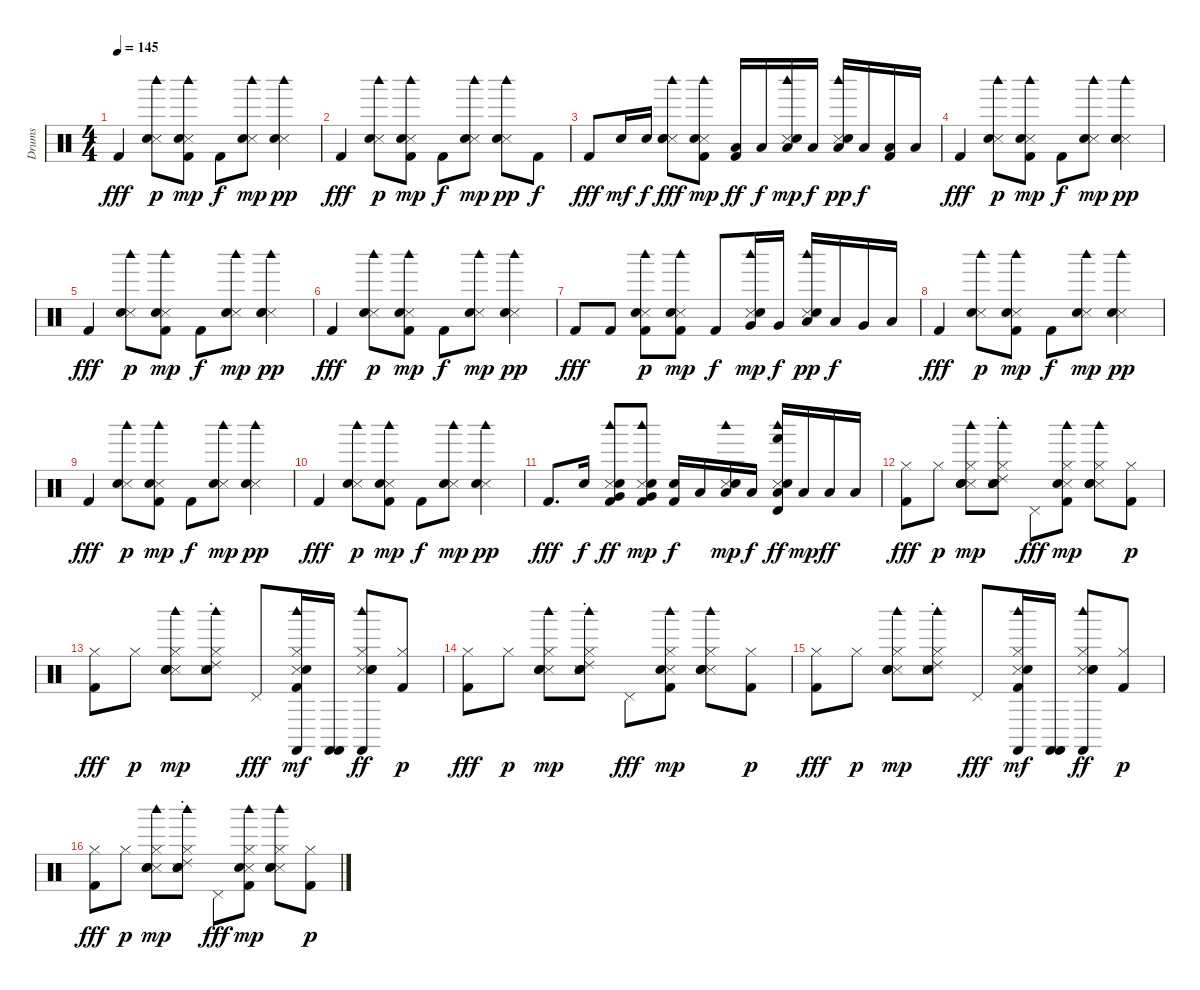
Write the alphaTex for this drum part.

\track ("Drums" "Drums") {instrument percussion}
\staff {score}
\articulation defaults
\ts (4 4)
\tempo 145
\clef neutral
\ks c "Kick (hit) 2".4{dy fff}
("Snare (side stick) 3" "Hand Clap (hit)" "Woodblock high (hit)").8{dy p} ("Kick (hit) 2" "Snare (side stick) 3" "Hand Clap (hit)" "Woodblock high (hit)").8{dy mp} "Kick (hit) 2".8{dy f} ("Snare (side stick) 3" "Hand Clap (hit)" "Woodblock high (hit)").8{dy mp} ("Snare (side stick) 3" "Hand Clap (hit)" "Woodblock high (hit)").4{dy pp} |
"Kick (hit) 2".4{dy fff} ("Snare (side stick) 3" "Hand Clap (hit)" "Woodblock high (hit)").8{dy p} ("Kick (hit) 2" "Snare (side stick) 3" "Hand Clap (hit)" "Woodblock high (hit)").8{dy mp} "Kick (hit) 2".8{dy f} ("Snare (side stick) 3" "Hand Clap (hit)" "Woodblock high (hit)").8{dy mp} ("Snare (side stick) 3" "Hand Clap (hit)" "Woodblock high (hit)").8{dy pp} "Kick (hit) 2".8{dy f} |
"Kick (hit) 2".8{dy fff} "Electric Snare (hit)".16{dy mf} "Electric Snare (hit)".16{dy f} ("Snare (side stick) 3" "Hand Clap (hit)" "Electric Snare (hit)" "Woodblock high (hit)").8{dy fff} ("Kick (hit) 2" "Snare (side stick) 3" "Hand Clap (hit)" "Woodblock high (hit)").8{dy mp} ("Kick (hit) 2" "Low Tom (hit)").16{dy ff} "Low Tom (hit)".16{dy f} ("Snare (side stick) 3" "Hand Clap (hit)" "Low Tom (hit)" "Woodblock high (hit)").16{dy mp} "Low Tom (hit)".16{dy f} ("Snare (side stick) 3" "Hand Clap (hit)" "Low Tom (hit)" "Woodblock high (hit)").16{dy pp} "Low Tom (hit)".16{dy f} ("Kick (hit) 2" "Low Tom (hit)").16 "Low Tom (hit)".16 |
"Kick (hit) 2".4{dy fff} ("Snare (side stick) 3" "Hand Clap (hit)" "Woodblock high (hit)").8{dy p} ("Kick (hit) 2" "Snare (side stick) 3" "Hand Clap (hit)" "Woodblock high (hit)").8{dy mp} "Kick (hit) 2".8{dy f} ("Snare (side stick) 3" "Hand Clap (hit)" "Woodblock high (hit)").8{dy mp} ("Snare (side stick) 3" "Hand Clap (hit)" "Woodblock high (hit)").4{dy pp} |
"Kick (hit) 2".4{dy fff} ("Snare (side stick) 3" "Hand Clap (hit)" "Woodblock high (hit)").8{dy p} ("Kick (hit) 2" "Snare (side stick) 3" "Hand Clap (hit)" "Woodblock high (hit)").8{dy mp} "Kick (hit) 2".8{dy f} ("Snare (side stick) 3" "Hand Clap (hit)" "Woodblock high (hit)").8{dy mp} ("Snare (side stick) 3" "Hand Clap (hit)" "Electric Snare (hit)" "Woodblock high (hit)").4{dy pp} |
"Kick (hit) 2".4{dy fff} ("Snare (side stick) 3" "Hand Clap (hit)" "Woodblock high (hit)").8{dy p} ("Kick (hit) 2" "Snare (side stick) 3" "Hand Clap (hit)" "Woodblock high (hit)").8{dy mp} "Kick (hit) 2".8{dy f} ("Snare (side stick) 3" "Hand Clap (hit)" "Woodblock high (hit)").8{dy mp} ("Snare (side stick) 3" "Hand Clap (hit)" "Woodblock high (hit)").4{dy pp} |
"Kick (hit) 2".8{dy fff} "Kick (hit) 2".8 ("Kick (hit) 2" "Snare (side stick) 3" "Hand Clap (hit)" "Woodblock high (hit)").8{dy p} ("Kick (hit) 2" "Snare (side stick) 3" "Hand Clap (hit)" "Woodblock high (hit)").8{dy mp} "Kick (hit) 2".8{dy f} ("Snare (side stick) 3" "Hand Clap (hit)" "Very Low Tom (hit)" "Woodblock high (hit)").16{dy mp} "Very Low Tom (hit)".16{dy f} ("Snare (side stick) 3" "Hand Clap (hit)" "Low Tom (hit)" "Woodblock high (hit)").16{dy pp} "Low Tom (hit)".16{dy f} "Very Low Tom (hit)".16 "Low Floor Tom (hit)".16 |
"Kick (hit) 2".4{dy fff} ("Snare (side stick) 3" "Hand Clap (hit)" "Woodblock high (hit)").8{dy p} ("Kick (hit) 2" "Snare (side stick) 3" "Hand Clap (hit)" "Woodblock high (hit)").8{dy mp} "Kick (hit) 2".8{dy f} ("Snare (side stick) 3" "Hand Clap (hit)" "Woodblock high (hit)").8{dy mp} ("Snare (side stick) 3" "Hand Clap (hit)" "Woodblock high (hit)").4{dy pp} |
"Kick (hit) 2".4{dy fff} ("Snare (side stick) 3" "Hand Clap (hit)" "Woodblock high (hit)").8{dy p} ("Kick (hit) 2" "Snare (side stick) 3" "Hand Clap (hit)" "Woodblock high (hit)").8{dy mp} "Kick (hit) 2".8{dy f} ("Snare (side stick) 3" "Hand Clap (hit)" "Woodblock high (hit)").8{dy mp} ("Snare (side stick) 3" "Hand Clap (hit)" "Woodblock high (hit)").4{dy pp} |
"Kick (hit) 2".4{dy fff} ("Snare (side stick) 3" "Hand Clap (hit)" "Woodblock high (hit)").8{dy p} ("Kick (hit) 2" "Snare (side stick) 3" "Hand Clap (hit)" "Woodblock high (hit)").8{dy mp} "Kick (hit) 2".8{dy f} ("Snare (side stick) 3" "Hand Clap (hit)" "Woodblock high (hit)").8{dy mp} ("Snare (side stick) 3" "Hand Clap (hit)" "Woodblock high (hit)").4{dy pp} |
"Kick (hit) 2".8{d dy fff} "Electric Snare (hit)".16{dy f} ("Kick (hit) 2" "Snare (side stick) 3" "Hand Clap (hit)" "Very Low Tom (hit)" "Woodblock high (hit)").8{dy ff} ("Kick (hit) 2" "Snare (side stick) 3" "Hand Clap (hit)" "Very Low Tom (hit)" "Woodblock high (hit)").8{dy mp} ("Kick (hit) 2" "Electric Snare (hit)").16{dy f} "Low Floor Tom (hit)".16 ("Snare (side stick) 3" "Hand Clap (hit)" "Low Floor Tom (hit)" "Woodblock high (hit)").16{dy mp} "Low Floor Tom (hit)".16{dy f} ("Snare (side stick) 3" "Hand Clap (hit)" "Low Floor Tom (hit)" "Hand (hit)" "Timbale high (hit)" "Woodblock high (hit)").16{dy ff} "Low Floor Tom (hit)".16{dy mp} "Low Floor Tom (hit)".16{dy ff} "Low Floor Tom (hit)".16 |
("Kick (hit) 2" "Hi-Hat (closed)").8{dy fff} "Hi-Hat (closed)".8{dy p} ("Snare (side stick) 3" "Hand Clap (hit)" "Electric Snare (hit)" "Hi-Hat (closed)" "Woodblock high (hit)").8{dy mp} ("Ride (choke) 2" "Snare (side stick) 3" "Hand Clap (hit)" "Electric Snare (hit)" "Hi-Hat (closed)" "Woodblock high (hit)").8 "Pedal Hi-Hat (hit)".8{dy fff} ("Kick (hit) 2" "Snare (side stick) 3" "Hand Clap (hit)" "Hi-Hat (closed)" "Woodblock high (hit)").8{dy mp} ("Snare (side stick) 3" "Hand Clap (hit)" "Electric Snare (hit)" "Hi-Hat (closed)" "Woodblock high (hit)").8 ("Kick (hit) 2" "Hi-Hat (closed)").8{dy p} |
("Kick (hit) 2" "Hi-Hat (closed)").8{dy fff} "Hi-Hat (closed)".8{dy p} ("Snare (side stick) 3" "Hand Clap (hit)" "Electric Snare (hit)" "Hi-Hat (closed)" "Woodblock high (hit)").8{dy mp} ("Ride (choke) 2" "Snare (side stick) 3" "Hand Clap (hit)" "Electric Snare (hit)" "Hi-Hat (closed)" "Woodblock high (hit)").8 "Pedal Hi-Hat (hit)".8{dy fff} ("Kick (hit) 2" "Snare (side stick) 3" "Hand Clap (hit)" "Hi-Hat (closed)" "Woodblock high (hit)" "Castanets (hit)").16{dy mf} ("Castanets (hit)" "Castanets (hit)").16 ("Snare (side stick) 3" "Hand Clap (hit)" "Electric Snare (hit)" "Hi-Hat (closed)" "Woodblock high (hit)" "Castanets (hit)").8{dy ff} ("Kick (hit) 2" "Hi-Hat (closed)").8{dy p} |
("Kick (hit) 2" "Hi-Hat (closed)").8{dy fff} "Hi-Hat (closed)".8{dy p} ("Snare (side stick) 3" "Hand Clap (hit)" "Electric Snare (hit)" "Hi-Hat (closed)" "Woodblock high (hit)").8{dy mp} ("Ride (choke) 2" "Snare (side stick) 3" "Hand Clap (hit)" "Electric Snare (hit)" "Hi-Hat (closed)" "Woodblock high (hit)").8 "Pedal Hi-Hat (hit)".8{dy fff} ("Kick (hit) 2" "Snare (side stick) 3" "Hand Clap (hit)" "Hi-Hat (closed)" "Woodblock high (hit)").8{dy mp} ("Snare (side stick) 3" "Hand Clap (hit)" "Electric Snare (hit)" "Hi-Hat (closed)" "Woodblock high (hit)").8 ("Kick (hit) 2" "Hi-Hat (closed)").8{dy p} |
("Kick (hit) 2" "Hi-Hat (closed)").8{dy fff} "Hi-Hat (closed)".8{dy p} ("Snare (side stick) 3" "Hand Clap (hit)" "Electric Snare (hit)" "Hi-Hat (closed)" "Woodblock high (hit)").8{dy mp} ("Ride (choke) 2" "Snare (side stick) 3" "Hand Clap (hit)" "Electric Snare (hit)" "Hi-Hat (closed)" "Woodblock high (hit)").8 "Pedal Hi-Hat (hit)".8{dy fff} ("Kick (hit) 2" "Snare (side stick) 3" "Hand Clap (hit)" "Hi-Hat (closed)" "Woodblock high (hit)" "Castanets (hit)").16{dy mf} ("Castanets (hit)" "Castanets (hit)").16 ("Snare (side stick) 3" "Hand Clap (hit)" "Electric Snare (hit)" "Hi-Hat (closed)" "Woodblock high (hit)" "Castanets (hit)").8{dy ff} ("Kick (hit) 2" "Hi-Hat (closed)").8{dy p} |
("Kick (hit) 2" "Hi-Hat (closed)").8{dy fff} "Hi-Hat (closed)".8{dy p} ("Snare (side stick) 3" "Hand Clap (hit)" "Electric Snare (hit)" "Hi-Hat (closed)" "Woodblock high (hit)").8{dy mp} ("Ride (choke) 2" "Snare (side stick) 3" "Hand Clap (hit)" "Electric Snare (hit)" "Hi-Hat (closed)" "Woodblock high (hit)").8 "Pedal Hi-Hat (hit)".8{dy fff} ("Kick (hit) 2" "Snare (side stick) 3" "Hand Clap (hit)" "Hi-Hat (closed)" "Woodblock high (hit)").8{dy mp} ("Snare (side stick) 3" "Hand Clap (hit)" "Electric Snare (hit)" "Hi-Hat (closed)" "Woodblock high (hit)").8 ("Kick (hit) 2" "Hi-Hat (closed)").8{dy p}
